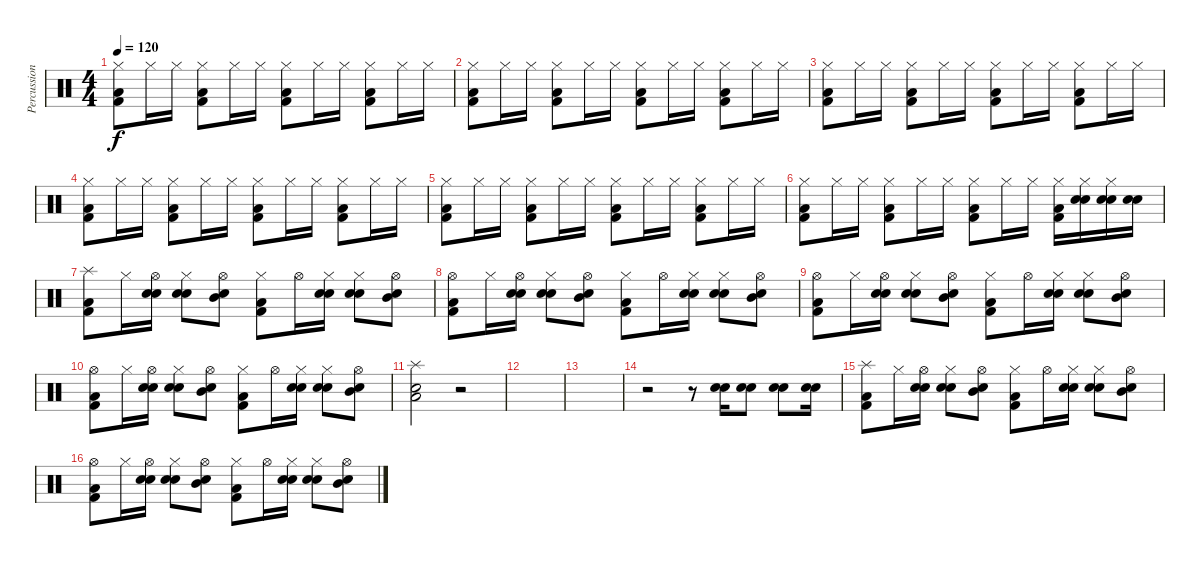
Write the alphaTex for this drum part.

\track ("Percussions" "Percussion") {instrument percussion}
\staff {score}
\articulation defaults
\ts (4 4)
\tempo 120
\clef neutral
\ks c
("Hi-Hat (closed)" "Kick (hit) 2" "Low Floor Tom (hit)").8{dy f} "Hi-Hat (closed)".16 "Hi-Hat (closed)".16 ("Hi-Hat (closed)" "Kick (hit) 2" "Low Floor Tom (hit)").8 "Hi-Hat (closed)".16 "Hi-Hat (closed)".16 ("Hi-Hat (closed)" "Kick (hit) 2" "Low Floor Tom (hit)").8 "Hi-Hat (closed)".16 "Hi-Hat (closed)".16 ("Hi-Hat (closed)" "Kick (hit) 2" "Low Floor Tom (hit)").8 "Hi-Hat (closed)".16 "Hi-Hat (closed)".16 |
("Hi-Hat (closed)" "Kick (hit) 2" "Low Floor Tom (hit)").8 "Hi-Hat (closed)".16 "Hi-Hat (closed)".16 ("Hi-Hat (closed)" "Kick (hit) 2" "Low Floor Tom (hit)").8 "Hi-Hat (closed)".16 "Hi-Hat (closed)".16 ("Hi-Hat (closed)" "Kick (hit) 2" "Low Floor Tom (hit)").8 "Hi-Hat (closed)".16 "Hi-Hat (closed)".16 ("Hi-Hat (closed)" "Kick (hit) 2" "Low Floor Tom (hit)").8 "Hi-Hat (closed)".16 "Hi-Hat (closed)".16 |
("Hi-Hat (closed)" "Kick (hit) 2" "Low Floor Tom (hit)").8 "Hi-Hat (closed)".16 "Hi-Hat (closed)".16 ("Hi-Hat (closed)" "Kick (hit) 2" "Low Floor Tom (hit)").8 "Hi-Hat (closed)".16 "Hi-Hat (closed)".16 ("Hi-Hat (closed)" "Kick (hit) 2" "Low Floor Tom (hit)").8 "Hi-Hat (closed)".16 "Hi-Hat (closed)".16 ("Hi-Hat (closed)" "Kick (hit) 2" "Low Floor Tom (hit)").8 "Hi-Hat (closed)".16 "Hi-Hat (closed)".16 |
("Hi-Hat (closed)" "Kick (hit) 2" "Low Floor Tom (hit)").8 "Hi-Hat (closed)".16 "Hi-Hat (closed)".16 ("Hi-Hat (closed)" "Kick (hit) 2" "Low Floor Tom (hit)").8 "Hi-Hat (closed)".16 "Hi-Hat (closed)".16 ("Hi-Hat (closed)" "Kick (hit) 2" "Low Floor Tom (hit)").8 "Hi-Hat (closed)".16 "Hi-Hat (closed)".16 ("Hi-Hat (closed)" "Kick (hit) 2" "Low Floor Tom (hit)").8 "Hi-Hat (closed)".16 "Hi-Hat (closed)".16 |
("Hi-Hat (closed)" "Kick (hit) 2" "Low Floor Tom (hit)").8 "Hi-Hat (closed)".16 "Hi-Hat (closed)".16 ("Hi-Hat (closed)" "Kick (hit) 2" "Low Floor Tom (hit)").8 "Hi-Hat (closed)".16 "Hi-Hat (closed)".16 ("Hi-Hat (closed)" "Kick (hit) 2" "Low Floor Tom (hit)").8 "Hi-Hat (closed)".16 "Hi-Hat (closed)".16 ("Hi-Hat (closed)" "Kick (hit) 2" "Low Floor Tom (hit)").8 "Hi-Hat (closed)".16 "Hi-Hat (closed)".16 |
("Hi-Hat (closed)" "Kick (hit) 2" "Low Floor Tom (hit)").8 "Hi-Hat (closed)".16 "Hi-Hat (closed)".16 ("Hi-Hat (closed)" "Kick (hit) 2" "Low Floor Tom (hit)").8 "Hi-Hat (closed)".16 "Hi-Hat (closed)".16 ("Hi-Hat (closed)" "Kick (hit) 2" "Low Floor Tom (hit)").8 "Hi-Hat (closed)".16 "Hi-Hat (closed)".16 ("Hi-Hat (closed)" "Kick (hit) 2" "Low Floor Tom (hit)").16 ("Hi-Hat (closed)" "Snare (hit) 2" "Electric Snare (hit)").16 ("Hi-Hat (closed)" "Snare (hit) 2" "Electric Snare (hit)").16 ("Snare (hit) 2" "Electric Snare (hit)").16 |
("Splash (hit)" "Kick (hit) 2" "Low Floor Tom (hit)").8 "Hi-Hat (closed)".16 ("Hi-Hat (open)" "Snare (hit) 2" "Electric Snare (hit)").16 ("Hi-Hat (closed)" "Snare (hit) 2" "Electric Snare (hit)").8 ("Hi-Hat (open)" "Snare (hit) 2" "Mid Tom (hit)").8 ("Hi-Hat (closed)" "Kick (hit) 2" "Low Floor Tom (hit)").8 "Hi-Hat (open)".16 ("Hi-Hat (closed)" "Snare (hit) 2" "Electric Snare (hit)").16 ("Hi-Hat (closed)" "Snare (hit) 2" "Electric Snare (hit)").8 ("Hi-Hat (open)" "Snare (hit) 2" "Mid Tom (hit)").8 |
("Hi-Hat (open)" "Kick (hit) 2" "Low Floor Tom (hit)").8 "Hi-Hat (closed)".16 ("Hi-Hat (open)" "Snare (hit) 2" "Electric Snare (hit)").16 ("Hi-Hat (closed)" "Snare (hit) 2" "Electric Snare (hit)").8 ("Hi-Hat (open)" "Snare (hit) 2" "Mid Tom (hit)").8 ("Hi-Hat (closed)" "Kick (hit) 2" "Low Floor Tom (hit)").8 "Hi-Hat (open)".16 ("Hi-Hat (closed)" "Snare (hit) 2" "Electric Snare (hit)").16 ("Hi-Hat (closed)" "Snare (hit) 2" "Electric Snare (hit)").8 ("Hi-Hat (open)" "Snare (hit) 2" "Mid Tom (hit)").8 |
("Hi-Hat (open)" "Kick (hit) 2" "Low Floor Tom (hit)").8 "Hi-Hat (closed)".16 ("Hi-Hat (open)" "Snare (hit) 2" "Electric Snare (hit)").16 ("Hi-Hat (closed)" "Snare (hit) 2" "Electric Snare (hit)").8 ("Hi-Hat (open)" "Snare (hit) 2" "Mid Tom (hit)").8 ("Hi-Hat (closed)" "Kick (hit) 2" "Low Floor Tom (hit)").8 "Hi-Hat (open)".16 ("Hi-Hat (closed)" "Snare (hit) 2" "Electric Snare (hit)").16 ("Hi-Hat (closed)" "Snare (hit) 2" "Electric Snare (hit)").8 ("Hi-Hat (open)" "Snare (hit) 2" "Mid Tom (hit)").8 |
("Hi-Hat (open)" "Kick (hit) 2" "Low Floor Tom (hit)").8 "Hi-Hat (closed)".16 ("Hi-Hat (open)" "Snare (hit) 2" "Electric Snare (hit)").16 ("Hi-Hat (closed)" "Snare (hit) 2" "Electric Snare (hit)").8 ("Hi-Hat (open)" "Snare (hit) 2" "Mid Tom (hit)").8 ("Hi-Hat (closed)" "Kick (hit) 2" "Low Floor Tom (hit)").8 "Hi-Hat (open)".16 ("Hi-Hat (closed)" "Snare (hit) 2" "Electric Snare (hit)").16 ("Hi-Hat (closed)" "Snare (hit) 2" "Electric Snare (hit)").8 ("Hi-Hat (open)" "Snare (hit) 2" "Mid Tom (hit)").8 |
("Splash (hit)" "Snare (hit) 2" "Low Floor Tom (hit)").2 r.2 |
|
|
r.2 r.8 ("Snare (hit) 2" "Electric Snare (hit)").16 ("Snare (hit) 2" "Electric Snare (hit)").8 ("Snare (hit) 2" "Electric Snare (hit)").8 ("Snare (hit) 2" "Electric Snare (hit)").16 |
("Splash (hit)" "Kick (hit) 2" "Low Floor Tom (hit)").8 "Hi-Hat (closed)".16 ("Hi-Hat (open)" "Snare (hit) 2" "Electric Snare (hit)").16 ("Hi-Hat (closed)" "Snare (hit) 2" "Electric Snare (hit)").8 ("Hi-Hat (open)" "Snare (hit) 2" "Mid Tom (hit)").8 ("Hi-Hat (closed)" "Kick (hit) 2" "Low Floor Tom (hit)").8 "Hi-Hat (open)".16 ("Hi-Hat (closed)" "Snare (hit) 2" "Electric Snare (hit)").16 ("Hi-Hat (closed)" "Snare (hit) 2" "Electric Snare (hit)").8 ("Hi-Hat (open)" "Snare (hit) 2" "Mid Tom (hit)").8 |
("Hi-Hat (open)" "Kick (hit) 2" "Low Floor Tom (hit)").8 "Hi-Hat (closed)".16 ("Hi-Hat (open)" "Snare (hit) 2" "Electric Snare (hit)").16 ("Hi-Hat (closed)" "Snare (hit) 2" "Electric Snare (hit)").8 ("Hi-Hat (open)" "Snare (hit) 2" "Mid Tom (hit)").8 ("Hi-Hat (closed)" "Kick (hit) 2" "Low Floor Tom (hit)").8 "Hi-Hat (open)".16 ("Hi-Hat (closed)" "Snare (hit) 2" "Electric Snare (hit)").16 ("Hi-Hat (closed)" "Snare (hit) 2" "Electric Snare (hit)").8 ("Hi-Hat (open)" "Snare (hit) 2" "Mid Tom (hit)").8
